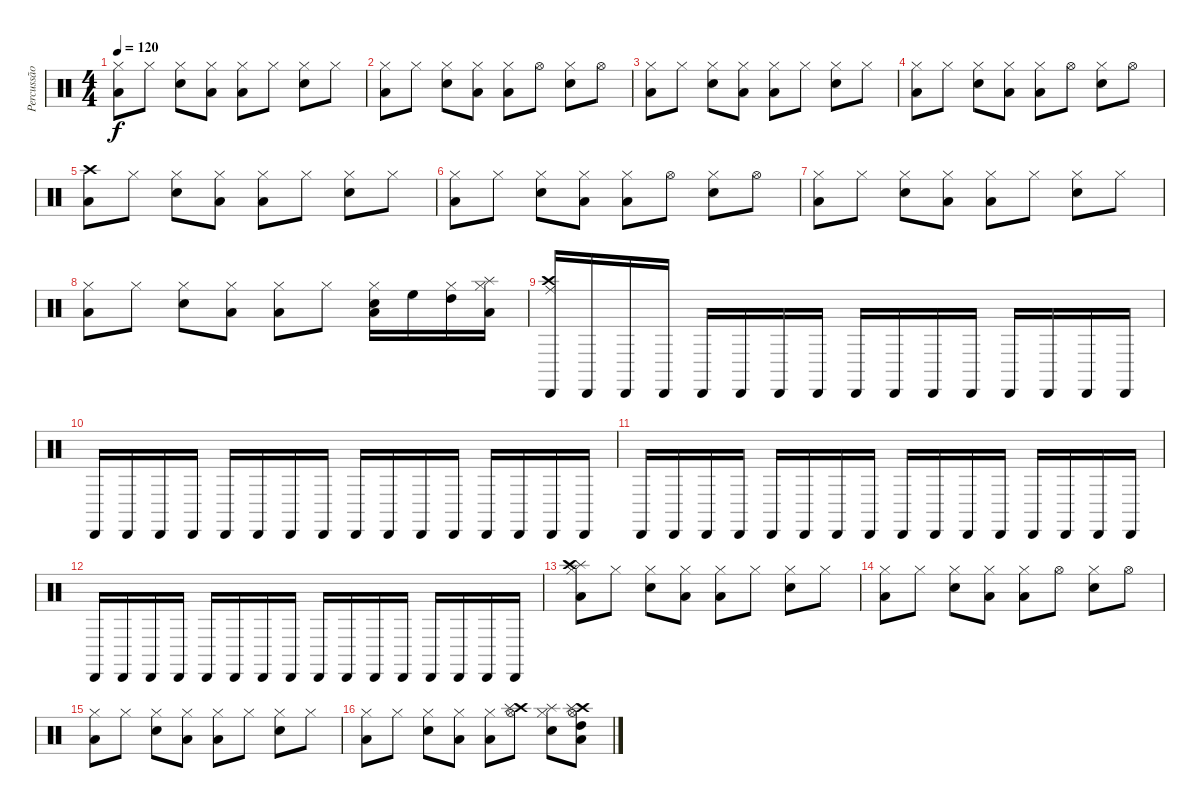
\track ("Percussão" "Percussão") {instrument percussion}
\staff {score}
\articulation defaults
\ts (4 4)
\tempo 120
\clef neutral
\ks c
("Hi-Hat (closed)" "Low Floor Tom (hit)").8{dy f} "Hi-Hat (closed)".8 ("Hi-Hat (closed)" "Snare (hit) 2").8 ("Hi-Hat (closed)" "Low Floor Tom (hit)").8 ("Hi-Hat (closed)" "Low Floor Tom (hit)").8 "Hi-Hat (closed)".8 ("Hi-Hat (closed)" "Snare (hit) 2").8 "Hi-Hat (closed)".8 |
("Hi-Hat (closed)" "Low Floor Tom (hit)").8 "Hi-Hat (closed)".8 ("Hi-Hat (closed)" "Snare (hit) 2").8 ("Hi-Hat (closed)" "Low Floor Tom (hit)").8 ("Hi-Hat (closed)" "Low Floor Tom (hit)").8 "Hi-Hat (open)".8 ("Hi-Hat (closed)" "Snare (hit) 2").8 "Hi-Hat (open)".8 |
("Hi-Hat (closed)" "Low Floor Tom (hit)").8 "Hi-Hat (closed)".8 ("Hi-Hat (closed)" "Snare (hit) 2").8 ("Hi-Hat (closed)" "Low Floor Tom (hit)").8 ("Hi-Hat (closed)" "Low Floor Tom (hit)").8 "Hi-Hat (closed)".8 ("Hi-Hat (closed)" "Snare (hit) 2").8 "Hi-Hat (closed)".8 |
("Hi-Hat (closed)" "Low Floor Tom (hit)").8 "Hi-Hat (closed)".8 ("Hi-Hat (closed)" "Snare (hit) 2").8 ("Hi-Hat (closed)" "Low Floor Tom (hit)").8 ("Hi-Hat (closed)" "Low Floor Tom (hit)").8 "Hi-Hat (open)".8 ("Hi-Hat (closed)" "Snare (hit) 2").8 "Hi-Hat (open)".8 |
("Crash high (hit)" "Low Floor Tom (hit)").8 "Hi-Hat (closed)".8 ("Hi-Hat (closed)" "Snare (hit) 2").8 ("Hi-Hat (closed)" "Low Floor Tom (hit)").8 ("Hi-Hat (closed)" "Low Floor Tom (hit)").8 "Hi-Hat (closed)".8 ("Hi-Hat (closed)" "Snare (hit) 2").8 "Hi-Hat (closed)".8 |
("Hi-Hat (closed)" "Low Floor Tom (hit)").8 "Hi-Hat (closed)".8 ("Hi-Hat (closed)" "Snare (hit) 2").8 ("Hi-Hat (closed)" "Low Floor Tom (hit)").8 ("Hi-Hat (closed)" "Low Floor Tom (hit)").8 "Hi-Hat (open)".8 ("Hi-Hat (closed)" "Snare (hit) 2").8 "Hi-Hat (open)".8 |
("Hi-Hat (closed)" "Low Floor Tom (hit)").8 "Hi-Hat (closed)".8 ("Hi-Hat (closed)" "Snare (hit) 2").8 ("Hi-Hat (closed)" "Low Floor Tom (hit)").8 ("Hi-Hat (closed)" "Low Floor Tom (hit)").8 "Hi-Hat (closed)".8 ("Hi-Hat (closed)" "Snare (hit) 2").8 "Hi-Hat (closed)".8 |
("Hi-Hat (closed)" "Low Floor Tom (hit)").8 "Hi-Hat (closed)".8 ("Hi-Hat (closed)" "Snare (hit) 2").8 ("Hi-Hat (closed)" "Low Floor Tom (hit)").8 ("Hi-Hat (closed)" "Low Floor Tom (hit)").8 "Hi-Hat (closed)".8 ("Hi-Hat (closed)" "Snare (hit) 2" "Low Tom (hit)").16 "High Floor Tom (hit)".16 ("Hi-Hat (closed)" "High Tom (hit)").16 ("Hi-Hat (closed)" "Low Floor Tom (hit)" "Splash (hit)").16 |
("Cabasa (hit)" "Crash high (hit)" "Ride (middle)").16 "Cabasa (hit)".16 "Cabasa (hit)".16 "Cabasa (hit)".16 "Cabasa (hit)".16 "Cabasa (hit)".16 "Cabasa (hit)".16 "Cabasa (hit)".16 "Cabasa (hit)".16 "Cabasa (hit)".16 "Cabasa (hit)".16 "Cabasa (hit)".16 "Cabasa (hit)".16 "Cabasa (hit)".16 "Cabasa (hit)".16 "Cabasa (hit)".16 |
"Cabasa (hit)".16 "Cabasa (hit)".16 "Cabasa (hit)".16 "Cabasa (hit)".16 "Cabasa (hit)".16 "Cabasa (hit)".16 "Cabasa (hit)".16 "Cabasa (hit)".16 "Cabasa (hit)".16 "Cabasa (hit)".16 "Cabasa (hit)".16 "Cabasa (hit)".16 "Cabasa (hit)".16 "Cabasa (hit)".16 "Cabasa (hit)".16 "Cabasa (hit)".16 |
"Cabasa (hit)".16 "Cabasa (hit)".16 "Cabasa (hit)".16 "Cabasa (hit)".16 "Cabasa (hit)".16 "Cabasa (hit)".16 "Cabasa (hit)".16 "Cabasa (hit)".16 "Cabasa (hit)".16 "Cabasa (hit)".16 "Cabasa (hit)".16 "Cabasa (hit)".16 "Cabasa (hit)".16 "Cabasa (hit)".16 "Cabasa (hit)".16 "Cabasa (hit)".16 |
"Cabasa (hit)".16 "Cabasa (hit)".16 "Cabasa (hit)".16 "Cabasa (hit)".16 "Cabasa (hit)".16 "Cabasa (hit)".16 "Cabasa (hit)".16 "Cabasa (hit)".16 "Cabasa (hit)".16 "Cabasa (hit)".16 "Cabasa (hit)".16 "Cabasa (hit)".16 "Cabasa (hit)".16 "Cabasa (hit)".16 "Cabasa (hit)".16 "Cabasa (hit)".16 |
("Hi-Hat (closed)" "Low Floor Tom (hit)" "Splash (hit)" "Crash high (hit)").8 "Hi-Hat (closed)".8 ("Hi-Hat (closed)" "Snare (hit) 2").8 ("Hi-Hat (closed)" "Low Floor Tom (hit)").8 ("Hi-Hat (closed)" "Low Floor Tom (hit)").8 "Hi-Hat (closed)".8 ("Hi-Hat (closed)" "Snare (hit) 2").8 "Hi-Hat (closed)".8 |
("Hi-Hat (closed)" "Low Floor Tom (hit)").8 "Hi-Hat (closed)".8 ("Hi-Hat (closed)" "Snare (hit) 2").8 ("Hi-Hat (closed)" "Low Floor Tom (hit)").8 ("Hi-Hat (closed)" "Low Floor Tom (hit)").8 "Hi-Hat (open)".8 ("Hi-Hat (closed)" "Snare (hit) 2").8 "Hi-Hat (open)".8 |
("Hi-Hat (closed)" "Low Floor Tom (hit)").8 "Hi-Hat (closed)".8 ("Hi-Hat (closed)" "Snare (hit) 2").8 ("Hi-Hat (closed)" "Low Floor Tom (hit)").8 ("Hi-Hat (closed)" "Low Floor Tom (hit)").8 "Hi-Hat (closed)".8 ("Hi-Hat (closed)" "Snare (hit) 2").8 "Hi-Hat (closed)".8 |
("Hi-Hat (closed)" "Low Floor Tom (hit)").8 "Hi-Hat (closed)".8 ("Hi-Hat (closed)" "Snare (hit) 2").8 ("Hi-Hat (closed)" "Low Floor Tom (hit)").8 ("Hi-Hat (closed)" "Low Floor Tom (hit)").8 ("Hi-Hat (open)" "Crash high (hit)" "Splash (hit)").8 ("Hi-Hat (closed)" "Snare (hit) 2" "Splash (hit)").8 ("Hi-Hat (open)" "High Tom (hit)" "Low Floor Tom (hit)" "Crash high (hit)" "Splash (hit)").8
